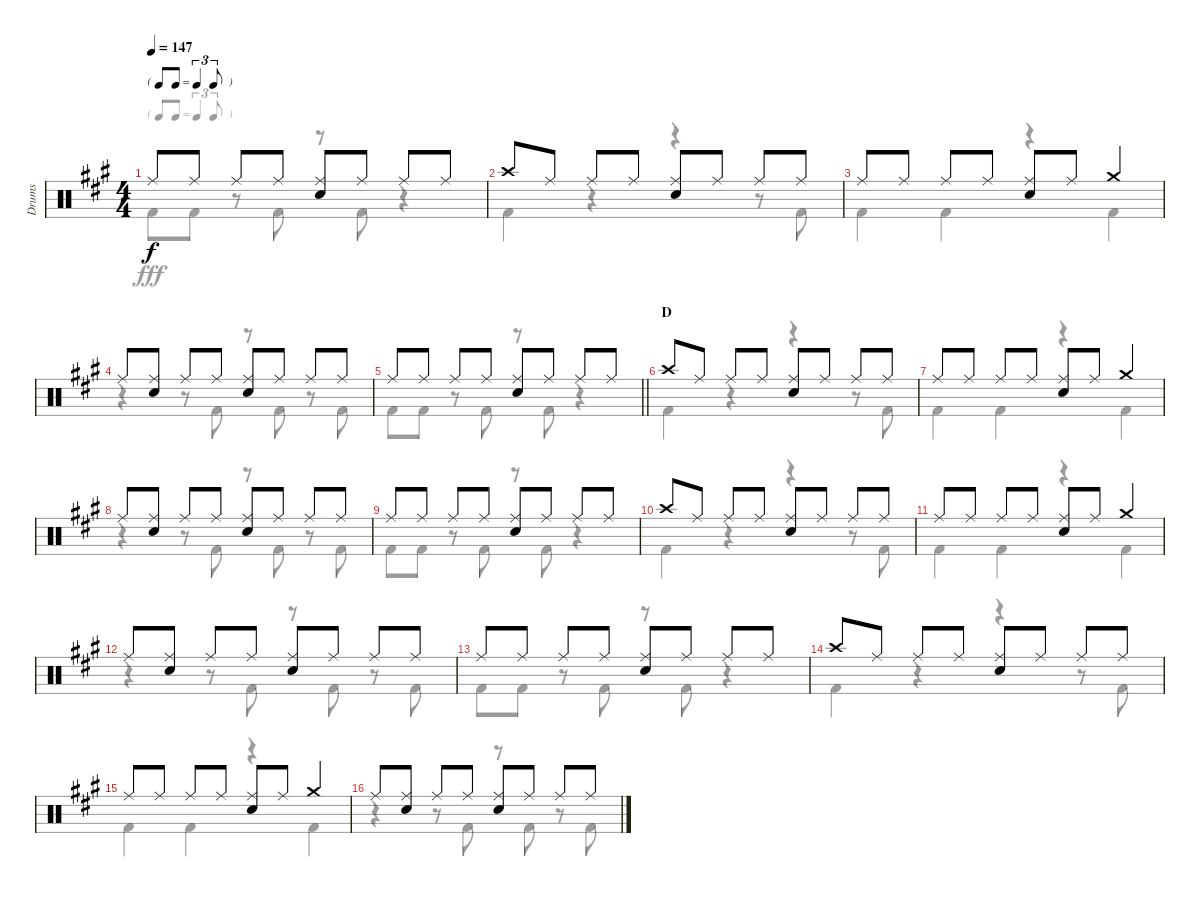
\track ("Drums" "Drums") {instrument percussion}
\staff {score}
\articulation defaults
\voice
\ts (4 4)
\tf triplet8th
\tempo 147
\clef neutral
\ks a "Ride (middle)".8{dy f} "Ride (middle)".8 "Ride (middle)".8 "Ride (middle)".8
("Ride (middle)" "Snare (hit) 2").8 "Ride (middle)".8 "Ride (middle)".8 "Ride (middle)".8 |
"Crash high (hit)".8 "Ride (middle)".8 "Ride (middle)".8 "Ride (middle)".8 ("Ride (middle)" "Snare (hit) 2").8 "Ride (middle)".8 "Ride (middle)".8 "Ride (middle)".8 |
"Ride (middle)".8 "Ride (middle)".8 "Ride (middle)".8 "Ride (middle)".8 ("Ride (middle)" "Snare (hit) 2").8 "Ride (middle)".8 "Crash medium (hit)".4 |
"Ride (middle)".8 ("Ride (middle)" "Snare (hit) 2").8 "Ride (middle)".8 "Ride (middle)".8 ("Ride (middle)" "Snare (hit) 2").8 "Ride (middle)".8 "Ride (middle)".8 "Ride (middle)".8 |
\barLineRight lightlight "Ride (middle)".8 "Ride (middle)".8 "Ride (middle)".8 "Ride (middle)".8
("Ride (middle)" "Snare (hit) 2").8 "Ride (middle)".8 "Ride (middle)".8 "Ride (middle)".8 |
\section ("" "D")
"Crash high (hit)".8 "Ride (middle)".8 "Ride (middle)".8 "Ride (middle)".8 ("Ride (middle)" "Snare (hit) 2").8 "Ride (middle)".8 "Ride (middle)".8 "Ride (middle)".8 |
"Ride (middle)".8 "Ride (middle)".8 "Ride (middle)".8 "Ride (middle)".8 ("Ride (middle)" "Snare (hit) 2").8 "Ride (middle)".8 "Crash medium (hit)".4 |
"Ride (middle)".8 ("Ride (middle)" "Snare (hit) 2").8 "Ride (middle)".8 "Ride (middle)".8 ("Ride (middle)" "Snare (hit) 2").8 "Ride (middle)".8 "Ride (middle)".8 "Ride (middle)".8 |
"Ride (middle)".8 "Ride (middle)".8 "Ride (middle)".8 "Ride (middle)".8 ("Ride (middle)" "Snare (hit) 2").8 "Ride (middle)".8 "Ride (middle)".8 "Ride (middle)".8 |
"Crash high (hit)".8 "Ride (middle)".8 "Ride (middle)".8 "Ride (middle)".8 ("Ride (middle)" "Snare (hit) 2").8 "Ride (middle)".8 "Ride (middle)".8 "Ride (middle)".8 |
"Ride (middle)".8 "Ride (middle)".8 "Ride (middle)".8 "Ride (middle)".8 ("Ride (middle)" "Snare (hit) 2").8 "Ride (middle)".8 "Crash medium (hit)".4 |
"Ride (middle)".8 ("Ride (middle)" "Snare (hit) 2").8 "Ride (middle)".8 "Ride (middle)".8 ("Ride (middle)" "Snare (hit) 2").8 "Ride (middle)".8 "Ride (middle)".8 "Ride (middle)".8 |
"Ride (middle)".8 "Ride (middle)".8 "Ride (middle)".8 "Ride (middle)".8 ("Ride (middle)" "Snare (hit) 2").8 "Ride (middle)".8 "Ride (middle)".8 "Ride (middle)".8 |
"Crash high (hit)".8 "Ride (middle)".8 "Ride (middle)".8 "Ride (middle)".8 ("Ride (middle)" "Snare (hit) 2").8 "Ride (middle)".8 "Ride (middle)".8 "Ride (middle)".8 |
"Ride (middle)".8 "Ride (middle)".8 "Ride (middle)".8 "Ride (middle)".8 ("Ride (middle)" "Snare (hit) 2").8 "Ride (middle)".8 "Crash medium (hit)".4 |
"Ride (middle)".8 ("Ride (middle)" "Snare (hit) 2").8 "Ride (middle)".8 "Ride (middle)".8 ("Ride (middle)" "Snare (hit) 2").8 "Ride (middle)".8 "Ride (middle)".8 "Ride (middle)".8
\voice
\clef neutral
\ottava regular
\simile none
\ks a "Kick (hit) 2".8{dy fff} "Kick (hit) 2".8
r.8 "Kick (hit) 2".8 r.8 "Kick (hit) 2".8 r.4 |
"Kick (hit) 2".4 r.4 r.4 r.8 "Kick (hit) 2".8 |
"Kick (hit) 2".4 "Kick (hit) 2".4 r.4 "Kick (hit) 2".4 |
r.4 r.8 "Kick (hit) 2".8 r.8 "Kick (hit) 2".8 r.8 "Kick (hit) 2".8 |
\barLineRight lightlight "Kick (hit) 2".8 "Kick (hit) 2".8
r.8 "Kick (hit) 2".8 r.8 "Kick (hit) 2".8 r.4 |
"Kick (hit) 2".4 r.4 r.4 r.8 "Kick (hit) 2".8 |
"Kick (hit) 2".4 "Kick (hit) 2".4 r.4 "Kick (hit) 2".4 |
r.4 r.8 "Kick (hit) 2".8 r.8 "Kick (hit) 2".8 r.8 "Kick (hit) 2".8 |
"Kick (hit) 2".8 "Kick (hit) 2".8 r.8 "Kick (hit) 2".8 r.8 "Kick (hit) 2".8 r.4 |
"Kick (hit) 2".4 r.4 r.4 r.8 "Kick (hit) 2".8 |
"Kick (hit) 2".4 "Kick (hit) 2".4 r.4 "Kick (hit) 2".4 |
r.4 r.8 "Kick (hit) 2".8 r.8 "Kick (hit) 2".8 r.8 "Kick (hit) 2".8 |
"Kick (hit) 2".8 "Kick (hit) 2".8 r.8 "Kick (hit) 2".8 r.8 "Kick (hit) 2".8 r.4 |
"Kick (hit) 2".4 r.4 r.4 r.8 "Kick (hit) 2".8 |
"Kick (hit) 2".4 "Kick (hit) 2".4 r.4 "Kick (hit) 2".4 |
r.4 r.8 "Kick (hit) 2".8 r.8 "Kick (hit) 2".8 r.8 "Kick (hit) 2".8
